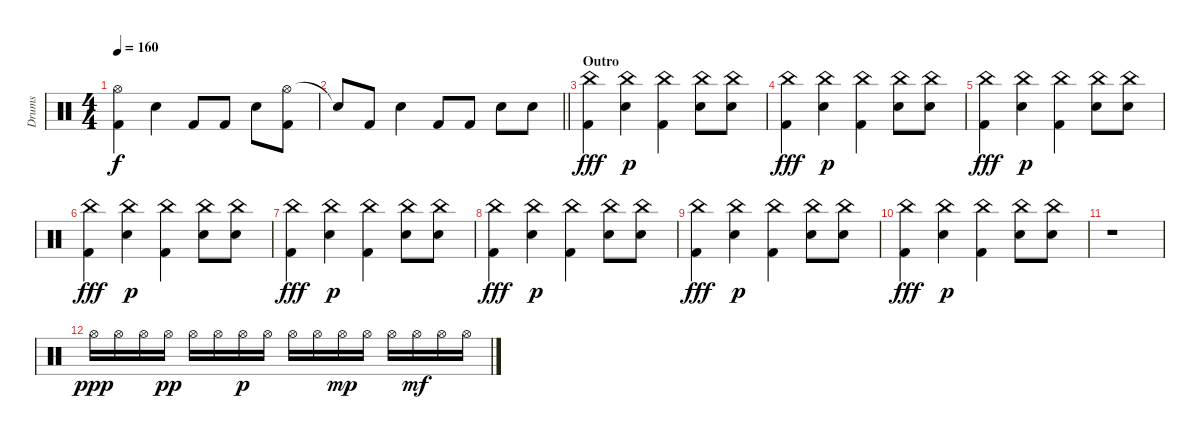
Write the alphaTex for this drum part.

\track ("Drums" "Drums") {instrument percussion}
\staff {score}
\articulation defaults
\ts (4 4)
\tempo 160
\clef neutral
\ks c
("Hi-Hat (open)" "Kick (hit) 2").4{dy f} "Snare (hit) 2".4 "Kick (hit) 2".8 "Kick (hit) 2".8 "Snare (hit) 2".8 ("Hi-Hat (open)" "Kick (hit) 2").8 |
\barLineRight lightlight "Snare (hit)"{t}.8 "Kick (hit) 2".8 "Snare (hit) 2".4 "Kick (hit) 2".8 "Kick (hit) 2".8 "Snare (hit) 2".8 "Snare (hit) 2".8
|
\section ("" "Outro")
("China (hit)" "Kick (hit) 2").4{dy fff} ("China (hit)" "Snare (hit) 2").4{dy p} ("China (hit)" "Kick (hit) 2").4 ("China (hit)" "Snare (hit) 2").8 ("China (hit)" "Snare (hit) 2").8 |
("China (hit)" "Kick (hit) 2").4{dy fff} ("China (hit)" "Snare (hit) 2").4{dy p} ("China (hit)" "Kick (hit) 2").4 ("China (hit)" "Snare (hit) 2").8 ("China (hit)" "Snare (hit) 2").8 |
("China (hit)" "Kick (hit) 2").4{dy fff} ("China (hit)" "Snare (hit) 2").4{dy p} ("China (hit)" "Kick (hit) 2").4 ("China (hit)" "Snare (hit) 2").8 ("China (hit)" "Snare (hit) 2").8 |
("China (hit)" "Kick (hit) 2").4{dy fff} ("China (hit)" "Snare (hit) 2").4{dy p} ("China (hit)" "Kick (hit) 2").4 ("China (hit)" "Snare (hit) 2").8 ("China (hit)" "Snare (hit) 2").8 |
("China (hit)" "Kick (hit) 2").4{dy fff} ("China (hit)" "Snare (hit) 2").4{dy p} ("China (hit)" "Kick (hit) 2").4 ("China (hit)" "Snare (hit) 2").8 ("China (hit)" "Snare (hit) 2").8 |
("China (hit)" "Kick (hit) 2").4{dy fff} ("China (hit)" "Snare (hit) 2").4{dy p} ("China (hit)" "Kick (hit) 2").4 ("China (hit)" "Snare (hit) 2").8 ("China (hit)" "Snare (hit) 2").8 |
("China (hit)" "Kick (hit) 2").4{dy fff} ("China (hit)" "Snare (hit) 2").4{dy p} ("China (hit)" "Kick (hit) 2").4 ("China (hit)" "Snare (hit) 2").8 ("China (hit)" "Snare (hit) 2").8 |
("China (hit)" "Kick (hit) 2").4{dy fff} ("China (hit)" "Snare (hit) 2").4{dy p} ("China (hit)" "Kick (hit) 2").4 ("China (hit)" "Snare (hit) 2").8 ("China (hit)" "Snare (hit) 2").8 |
r.1 |
"Hi-Hat (open)".16{dy ppp} "Hi-Hat (open)".16 "Hi-Hat (open)".16 "Hi-Hat (open)".16{dy pp} "Hi-Hat (open)".16 "Hi-Hat (open)".16 "Hi-Hat (open)".16{dy p} "Hi-Hat (open)".16 "Hi-Hat (open)".16 "Hi-Hat (open)".16 "Hi-Hat (open)".16{dy mp} "Hi-Hat (open)".16 "Hi-Hat (open)".16 "Hi-Hat (open)".16{dy mf} "Hi-Hat (open)".16 "Hi-Hat (open)".16
